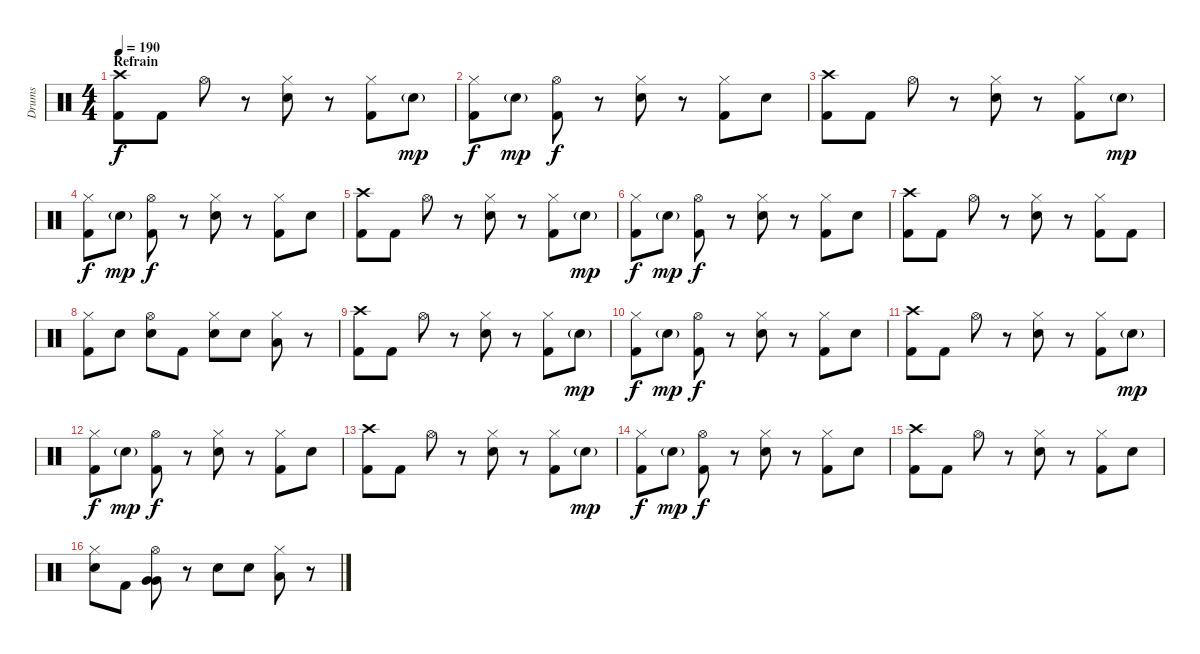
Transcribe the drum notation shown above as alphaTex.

\track ("Drums" "Drums") {instrument percussion}
\staff {score}
\articulation defaults
\ts (4 4)
\section ("" "Refrain")
\tempo 190
\clef neutral
\ks c
("Crash high (hit)" "Kick (hit) 2").8{dy f} "Kick (hit) 2".8 "Hi-Hat (open)".8 r.8 ("Hi-Hat (closed)" "Electric Snare (hit)").8 r.8 ("Hi-Hat (closed)" "Kick (hit) 2").8 "Electric Snare (hit)"{g}.8{dy mp} |
("Hi-Hat (closed)" "Kick (hit) 2").8{dy f} "Electric Snare (hit)"{g}.8{dy mp} ("Hi-Hat (open)" "Kick (hit) 2").8{dy f} r.8 ("Hi-Hat (closed)" "Electric Snare (hit)").8 r.8 ("Hi-Hat (closed)" "Kick (hit) 2").8 "Electric Snare (hit)".8 |
("Crash high (hit)" "Kick (hit) 2").8 "Kick (hit) 2".8 "Hi-Hat (open)".8 r.8 ("Hi-Hat (closed)" "Electric Snare (hit)").8 r.8 ("Hi-Hat (closed)" "Kick (hit) 2").8 "Electric Snare (hit)"{g}.8{dy mp} |
("Hi-Hat (closed)" "Kick (hit) 2").8{dy f} "Electric Snare (hit)"{g}.8{dy mp} ("Hi-Hat (open)" "Kick (hit) 2").8{dy f} r.8 ("Hi-Hat (closed)" "Electric Snare (hit)").8 r.8 ("Hi-Hat (closed)" "Kick (hit) 2").8 "Electric Snare (hit)".8 |
("Crash high (hit)" "Kick (hit) 2").8 "Kick (hit) 2".8 "Hi-Hat (open)".8 r.8 ("Hi-Hat (closed)" "Electric Snare (hit)").8 r.8 ("Hi-Hat (closed)" "Kick (hit) 2").8 "Electric Snare (hit)"{g}.8{dy mp} |
("Hi-Hat (closed)" "Kick (hit) 2").8{dy f} "Electric Snare (hit)"{g}.8{dy mp} ("Hi-Hat (open)" "Kick (hit) 2").8{dy f} r.8 ("Hi-Hat (closed)" "Electric Snare (hit)").8 r.8 ("Hi-Hat (closed)" "Kick (hit) 2").8 "Electric Snare (hit)".8 |
("Crash high (hit)" "Kick (hit) 2").8 "Kick (hit) 2".8 "Hi-Hat (open)".8 r.8 ("Hi-Hat (closed)" "Electric Snare (hit)").8 r.8 ("Hi-Hat (closed)" "Kick (hit) 2").8 "Kick (hit) 2".8 |
("Hi-Hat (closed)" "Kick (hit) 2").8 "Electric Snare (hit)".8 ("Hi-Hat (open)" "Electric Snare (hit)").8 "Kick (hit) 2".8 ("Hi-Hat (closed)" "Electric Snare (hit)").8 "Electric Snare (hit)".8 ("Hi-Hat (closed)" "Low Floor Tom (hit)").8 r.8 |
("Crash high (hit)" "Kick (hit) 2").8 "Kick (hit) 2".8 "Hi-Hat (open)".8 r.8 ("Hi-Hat (closed)" "Electric Snare (hit)").8 r.8 ("Hi-Hat (closed)" "Kick (hit) 2").8 "Electric Snare (hit)"{g}.8{dy mp} |
("Hi-Hat (closed)" "Kick (hit) 2").8{dy f} "Electric Snare (hit)"{g}.8{dy mp} ("Hi-Hat (open)" "Kick (hit) 2").8{dy f} r.8 ("Hi-Hat (closed)" "Electric Snare (hit)").8 r.8 ("Hi-Hat (closed)" "Kick (hit) 2").8 "Electric Snare (hit)".8 |
("Crash high (hit)" "Kick (hit) 2").8 "Kick (hit) 2".8 "Hi-Hat (open)".8 r.8 ("Hi-Hat (closed)" "Electric Snare (hit)").8 r.8 ("Hi-Hat (closed)" "Kick (hit) 2").8 "Electric Snare (hit)"{g}.8{dy mp} |
("Hi-Hat (closed)" "Kick (hit) 2").8{dy f} "Electric Snare (hit)"{g}.8{dy mp} ("Hi-Hat (open)" "Kick (hit) 2").8{dy f} r.8 ("Hi-Hat (closed)" "Electric Snare (hit)").8 r.8 ("Hi-Hat (closed)" "Kick (hit) 2").8 "Electric Snare (hit)".8 |
("Crash high (hit)" "Kick (hit) 2").8 "Kick (hit) 2".8 "Hi-Hat (open)".8 r.8 ("Hi-Hat (closed)" "Electric Snare (hit)").8 r.8 ("Hi-Hat (closed)" "Kick (hit) 2").8 "Electric Snare (hit)"{g}.8{dy mp} |
("Hi-Hat (closed)" "Kick (hit) 2").8{dy f} "Electric Snare (hit)"{g}.8{dy mp} ("Hi-Hat (open)" "Kick (hit) 2").8{dy f} r.8 ("Hi-Hat (closed)" "Electric Snare (hit)").8 r.8 ("Hi-Hat (closed)" "Kick (hit) 2").8 "Electric Snare (hit)".8 |
("Crash high (hit)" "Kick (hit) 2").8 "Kick (hit) 2".8 "Hi-Hat (open)".8 r.8 ("Hi-Hat (closed)" "Electric Snare (hit)").8 r.8 ("Hi-Hat (closed)" "Kick (hit) 2").8 "Electric Snare (hit)".8 |
("Hi-Hat (closed)" "Electric Snare (hit)").8 "Kick (hit) 2".8 ("Hi-Hat (open)" "Very Low Tom (hit)" "Very Low Tom (hit)").8 r.8 "Electric Snare (hit)".8 "Electric Snare (hit)".8 ("Hi-Hat (closed)" "Low Floor Tom (hit)").8 r.8
